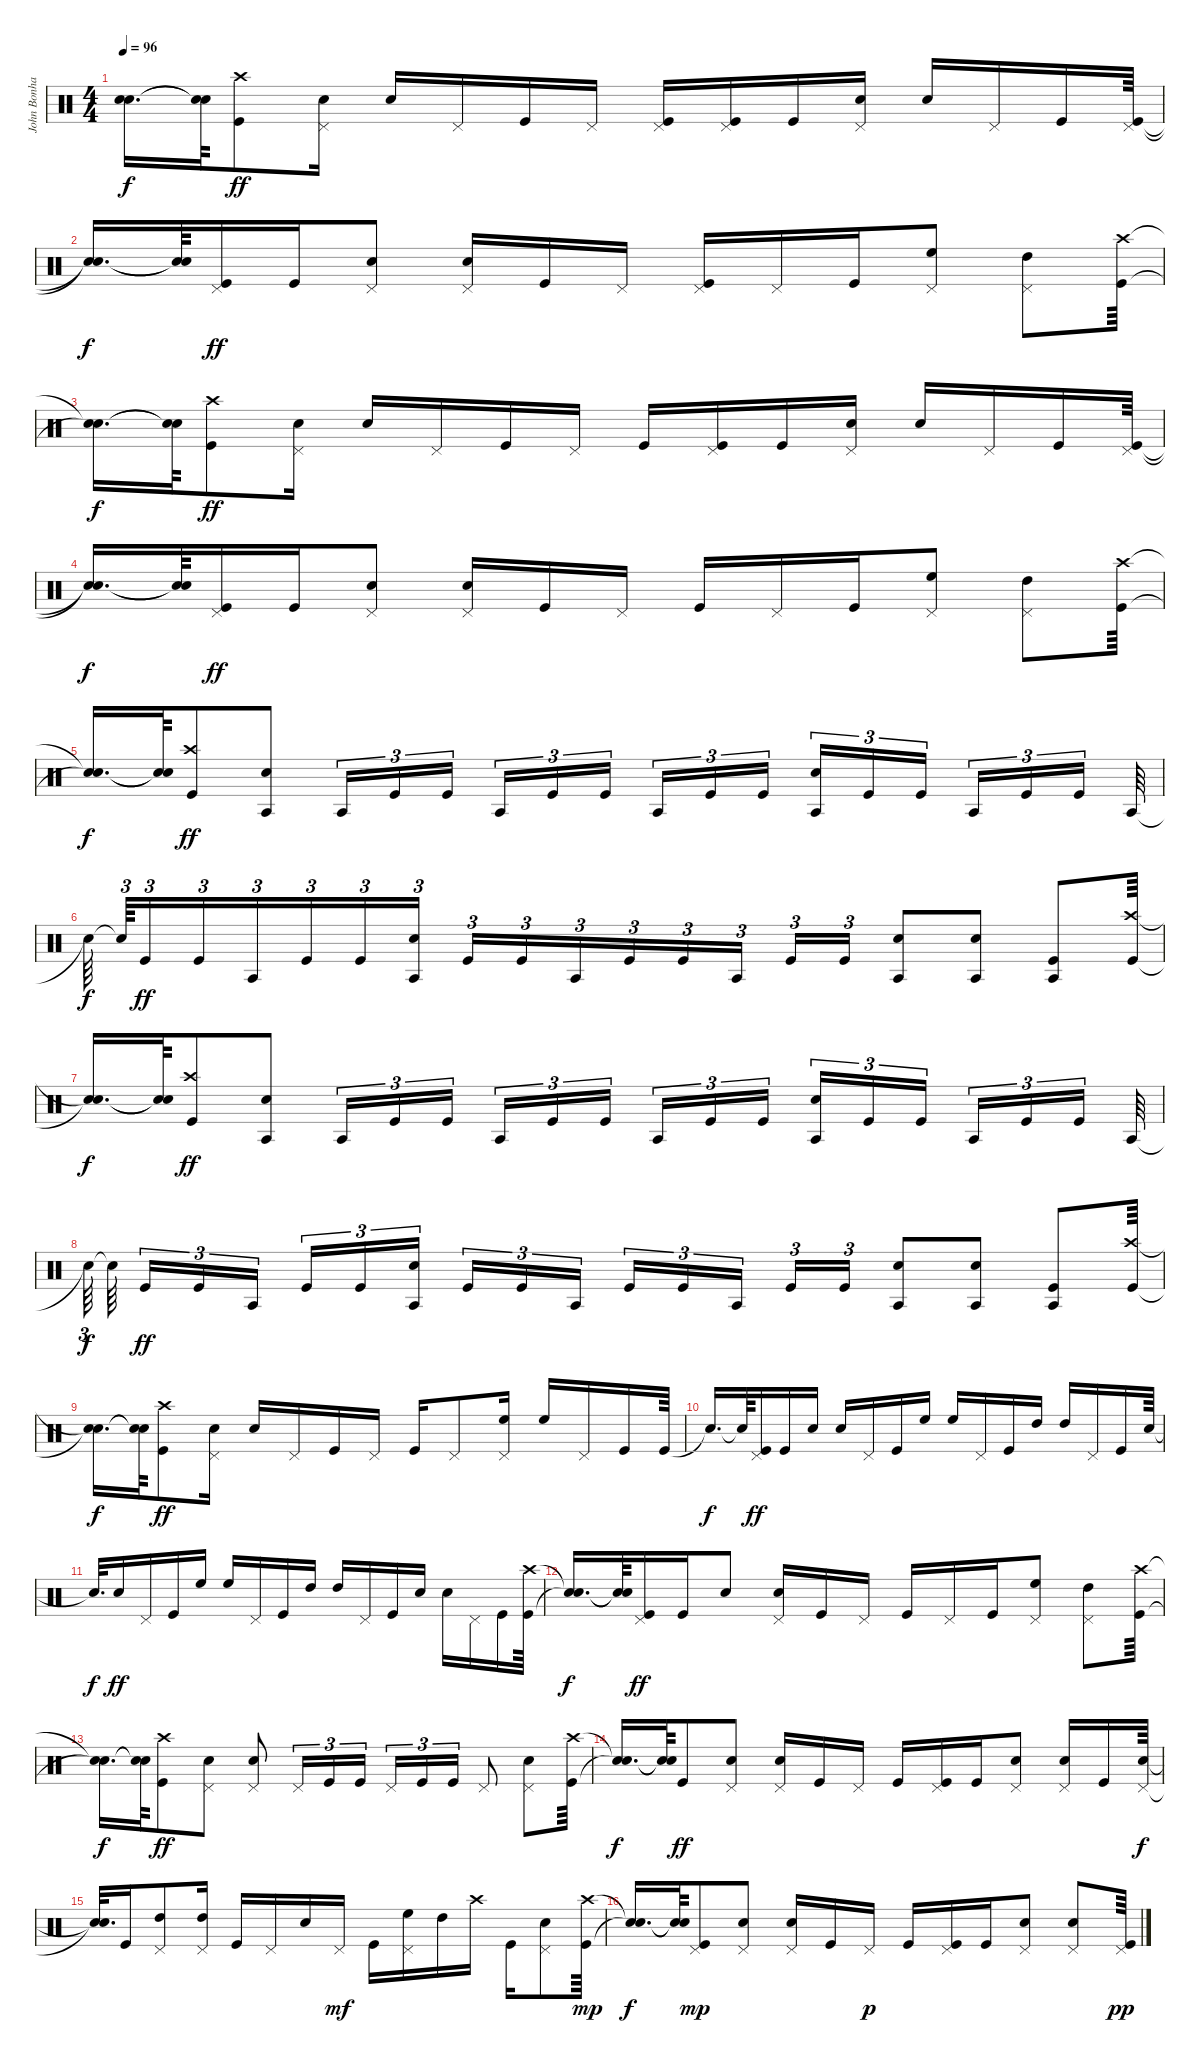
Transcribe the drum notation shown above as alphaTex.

\track ("John Bonham - Drums" "John Bonha") {instrument percussion}
\staff {score}
\articulation defaults
\ts (4 4)
\tempo 96
\clef neutral
\ks c
("Snare (hit)"{t} "Snare (hit)"{t}).16{d dy f} ("Snare (hit)"{t} "Snare (hit)"{t}).64 ("Crash high (hit)" "Kick (hit)").8{dy ff} ("Pedal Hi-Hat (hit)" "Snare (hit) 2").16 "Snare (hit) 2".16 "Pedal Hi-Hat (hit)".16 "Kick (hit)".16 "Pedal Hi-Hat (hit)".16 ("Pedal Hi-Hat (hit)" "Kick (hit)").16 ("Pedal Hi-Hat (hit)" "Kick (hit)").16 "Kick (hit)".16 ("Pedal Hi-Hat (hit)" "Snare (hit) 2").16 "Snare (hit) 2".16 "Pedal Hi-Hat (hit)".16 "Kick (hit)".16 ("Pedal Hi-Hat (hit)" "Kick (hit)").64 |
("Snare (hit)"{t} "Snare (hit)"{t}).16{d dy f} ("Snare (hit)"{t} "Snare (hit)"{t}).64 ("Pedal Hi-Hat (hit)" "Kick (hit)").16{dy ff} "Kick (hit)".16 ("Pedal Hi-Hat (hit)" "Snare (hit) 2").8 ("Pedal Hi-Hat (hit)" "Snare (hit) 2").16 "Kick (hit)".16 "Pedal Hi-Hat (hit)".16 ("Pedal Hi-Hat (hit)" "Kick (hit)").16 "Pedal Hi-Hat (hit)".16 "Kick (hit)".16 ("Pedal Hi-Hat (hit)" "High Floor Tom (hit)").8 ("Pedal Hi-Hat (hit)" "High Tom (hit)").8 ("Crash high (hit)" "Kick (hit)").64 |
("Snare (hit)"{t} "Snare (hit)"{t}).16{d dy f} ("Snare (hit)"{t} "Snare (hit)"{t}).64 ("Crash high (hit)" "Kick (hit)").8{dy ff} ("Pedal Hi-Hat (hit)" "Snare (hit) 2").16 "Snare (hit) 2".16 "Pedal Hi-Hat (hit)".16 "Kick (hit)".16 "Pedal Hi-Hat (hit)".16 "Kick (hit)".16 ("Pedal Hi-Hat (hit)" "Kick (hit)").16 "Kick (hit)".16 ("Pedal Hi-Hat (hit)" "Snare (hit) 2").16 "Snare (hit) 2".16 "Pedal Hi-Hat (hit)".16 "Kick (hit)".16 ("Pedal Hi-Hat (hit)" "Kick (hit)").64 |
("Snare (hit)"{t} "Snare (hit)"{t}).16{d dy f} ("Snare (hit)"{t} "Snare (hit)"{t}).64 ("Pedal Hi-Hat (hit)" "Kick (hit)").16{dy ff} "Kick (hit)".16 ("Pedal Hi-Hat (hit)" "Snare (hit) 2").8 ("Pedal Hi-Hat (hit)" "Snare (hit) 2").16 "Kick (hit)".16 "Pedal Hi-Hat (hit)".16 "Kick (hit)".16 "Pedal Hi-Hat (hit)".16 "Kick (hit)".16 ("Pedal Hi-Hat (hit)" "High Floor Tom (hit)").8 ("Pedal Hi-Hat (hit)" "High Tom (hit)").8 ("Crash high (hit)" "Kick (hit)").64 |
("Snare (hit)"{t} "Snare (hit)"{t}).16{d dy f} ("Snare (hit)"{t} "Snare (hit)"{t}).64 ("Crash high (hit)" "Kick (hit)").8{dy ff} ("Agogo tow (hit)" "Snare (hit) 2").8 "Agogo tow (hit)".16{tu (3 2)} "Kick (hit)".16{tu (3 2)} "Kick (hit)".16{tu (3 2) beam splitsecondary} "Agogo tow (hit)".16{tu (3 2)} "Kick (hit)".16{tu (3 2)} "Kick (hit)".16{tu (3 2) beam splitsecondary} "Agogo tow (hit)".16{tu (3 2)} "Kick (hit)".16{tu (3 2)} "Kick (hit)".16{tu (3 2) beam splitsecondary} ("Agogo tow (hit)" "Snare (hit) 2").16{tu (3 2)} "Kick (hit)".16{tu (3 2)} "Kick (hit)".16{tu (3 2) beam splitsecondary} "Agogo tow (hit)".16{tu (3 2)} "Kick (hit)".16{tu (3 2)} "Kick (hit)".16{tu (3 2) beam splitsecondary} "Agogo tow (hit)".64 |
"Snare (hit)"{t}.64{dy f beam splitsecondary} "Snare (hit)"{t}.64{tu (3 2)} "Kick (hit)".16{tu (3 2) dy ff} "Kick (hit)".16{tu (3 2)} "Agogo tow (hit)".16{tu (3 2)} "Kick (hit)".16{tu (3 2)} "Kick (hit)".16{tu (3 2)} ("Agogo tow (hit)" "Snare (hit) 2").16{tu (3 2)} "Kick (hit)".16{tu (3 2)} "Kick (hit)".16{tu (3 2)} "Agogo tow (hit)".16{tu (3 2)} "Kick (hit)".16{tu (3 2)} "Kick (hit)".16{tu (3 2)} "Agogo tow (hit)".16{tu (3 2)} "Kick (hit)".16{tu (3 2)} "Kick (hit)".16{tu (3 2)} ("Agogo tow (hit)" "Snare (hit) 2").8 ("Agogo tow (hit)" "Snare (hit) 2").8 ("Agogo tow (hit)" "Kick (hit)").8 ("Crash high (hit)" "Kick (hit)").64 |
("Snare (hit)"{t} "Snare (hit)"{t}).16{d dy f} ("Snare (hit)"{t} "Snare (hit)"{t}).64 ("Crash high (hit)" "Kick (hit)").8{dy ff} ("Agogo tow (hit)" "Snare (hit) 2").8 "Agogo tow (hit)".16{tu (3 2)} "Kick (hit)".16{tu (3 2)} "Kick (hit)".16{tu (3 2) beam splitsecondary} "Agogo tow (hit)".16{tu (3 2)} "Kick (hit)".16{tu (3 2)} "Kick (hit)".16{tu (3 2) beam splitsecondary} "Agogo tow (hit)".16{tu (3 2)} "Kick (hit)".16{tu (3 2)} "Kick (hit)".16{tu (3 2) beam splitsecondary} ("Agogo tow (hit)" "Snare (hit) 2").16{tu (3 2)} "Kick (hit)".16{tu (3 2)} "Kick (hit)".16{tu (3 2) beam splitsecondary} "Agogo tow (hit)".16{tu (3 2)} "Kick (hit)".16{tu (3 2)} "Kick (hit)".16{tu (3 2) beam splitsecondary} "Agogo tow (hit)".64 |
"Snare (hit)"{t}.64{tu (3 2) dy f beam splitsecondary} "Snare (hit)"{t}.64{beam splitsecondary} "Kick (hit)".16{tu (3 2) dy ff} "Kick (hit)".16{tu (3 2)} "Agogo tow (hit)".16{tu (3 2) beam splitsecondary} "Kick (hit)".16{tu (3 2)} "Kick (hit)".16{tu (3 2)} ("Agogo tow (hit)" "Snare (hit) 2").16{tu (3 2)} "Kick (hit)".16{tu (3 2)} "Kick (hit)".16{tu (3 2)} "Agogo tow (hit)".16{tu (3 2) beam splitsecondary} "Kick (hit)".16{tu (3 2)} "Kick (hit)".16{tu (3 2)} "Agogo tow (hit)".16{tu (3 2)} "Kick (hit)".16{tu (3 2)} "Kick (hit)".16{tu (3 2)} ("Agogo tow (hit)" "Snare (hit) 2").8 ("Agogo tow (hit)" "Snare (hit) 2").8 ("Agogo tow (hit)" "Kick (hit)").8 ("Crash high (hit)" "Kick (hit)").64 |
("Snare (hit)"{t} "Snare (hit)"{t}).16{d dy f} ("Snare (hit)"{t} "Snare (hit)"{t}).64 ("Crash high (hit)" "Kick (hit)").8{dy ff} ("Pedal Hi-Hat (hit)" "Snare (hit) 2").16 "Snare (hit) 2".16 "Pedal Hi-Hat (hit)".16 "Kick (hit)".16 "Pedal Hi-Hat (hit)".16 "Kick (hit)".16 "Pedal Hi-Hat (hit)".8 ("Pedal Hi-Hat (hit)" "High Floor Tom (hit)").16 "High Floor Tom (hit)".16 "Pedal Hi-Hat (hit)".16 "Kick (hit)".16 "Kick (hit)".64 |
"Snare (hit)"{t}.16{d dy f} "Snare (hit)"{t}.64 ("Pedal Hi-Hat (hit)" "Kick (hit)").16{dy ff} "Kick (hit)".16 "Snare (hit) 2".16 "Snare (hit) 2".16 "Pedal Hi-Hat (hit)".16 "Kick (hit)".16 "High Floor Tom (hit)".16 "High Floor Tom (hit)".16 "Pedal Hi-Hat (hit)".16 "Kick (hit)".16 "High Tom (hit)".16 "High Tom (hit)".16 "Pedal Hi-Hat (hit)".16 "Kick (hit)".16 "Snare (hit) 2".64 |
"Snare (hit)"{t}.32{d dy f} "Snare (hit) 2".16{dy ff} "Pedal Hi-Hat (hit)".16 "Kick (hit)".16 "High Floor Tom (hit)".16 "High Floor Tom (hit)".16 "Pedal Hi-Hat (hit)".16 "Kick (hit)".16 "High Tom (hit)".16 "High Tom (hit)".16 "Pedal Hi-Hat (hit)".16 "Kick (hit)".16 "Snare (hit) 2".16 "Snare (hit) 2".16 "Pedal Hi-Hat (hit)".16 "Kick (hit)".16 ("Crash high (hit)" "Kick (hit)").64 |
("Snare (hit)"{t} "Snare (hit)"{t}).16{d dy f} ("Snare (hit)"{t} "Snare (hit)"{t}).64 ("Pedal Hi-Hat (hit)" "Kick (hit)").16{dy ff} "Kick (hit)".16 "Snare (hit) 2".8 ("Pedal Hi-Hat (hit)" "Snare (hit) 2").16 "Kick (hit)".16 "Pedal Hi-Hat (hit)".16 "Kick (hit)".16 "Pedal Hi-Hat (hit)".16 "Kick (hit)".16 ("Pedal Hi-Hat (hit)" "High Floor Tom (hit)").8 ("Pedal Hi-Hat (hit)" "High Tom (hit)").8 ("Crash high (hit)" "Kick (hit)").64 |
("Snare (hit)"{t} "Snare (hit)"{t}).16{d dy f} ("Snare (hit)"{t} "Snare (hit)"{t}).64 ("Crash high (hit)" "Kick (hit)").8{dy ff} ("Pedal Hi-Hat (hit)" "Snare (hit) 2").8 ("Pedal Hi-Hat (hit)" "Snare (hit) 2").8 "Pedal Hi-Hat (hit)".16{tu (3 2)} "Kick (hit)".16{tu (3 2)} "Kick (hit)".16{tu (3 2) beam splitsecondary} "Pedal Hi-Hat (hit)".16{tu (3 2)} "Kick (hit)".16{tu (3 2)} "Kick (hit)".16{tu (3 2)} "Pedal Hi-Hat (hit)".8 ("Pedal Hi-Hat (hit)" "Snare (hit) 2").8 ("Crash high (hit)" "Kick (hit)").64 |
("Snare (hit)"{t} "Snare (hit)"{t}).16{d dy f} ("Snare (hit)"{t} "Snare (hit)"{t}).64 "Kick (hit)".8{dy ff} ("Pedal Hi-Hat (hit)" "Snare (hit) 2").8 ("Pedal Hi-Hat (hit)" "Snare (hit) 2").16 "Kick (hit)".16 "Pedal Hi-Hat (hit)".16 "Kick (hit)".16 ("Pedal Hi-Hat (hit)" "Kick (hit)").16 "Kick (hit)".16 ("Pedal Hi-Hat (hit)" "Snare (hit) 2").8 ("Pedal Hi-Hat (hit)" "Snare (hit) 2").16 "Kick (hit)".16 ("Pedal Hi-Hat (hit)" "Snare (hit) 2").64{dy f} |
("Snare (hit)"{t} "Snare (hit)"{t}).32{d} "Kick (hit)".16 ("Pedal Hi-Hat (hit)" "High Tom (hit)").8 ("Pedal Hi-Hat (hit)" "High Tom (hit)").16 "Kick (hit)".16 "Pedal Hi-Hat (hit)".16 "Snare (hit) 2".16 "Pedal Hi-Hat (hit)".16{dy mf} "Kick (hit)".16 ("Pedal Hi-Hat (hit)" "High Floor Tom (hit)").16 "High Tom (hit)".16 "Crash high (hit)".16 "Kick (hit)".16 ("Pedal Hi-Hat (hit)" "Snare (hit) 2").8 ("Crash high (hit)" "Kick (hit)").64{dy mp} |
("Snare (hit)"{t} "Snare (hit)"{t}).16{d dy f} ("Snare (hit)"{t} "Snare (hit)"{t}).64 ("Pedal Hi-Hat (hit)" "Kick (hit)").8{dy mp} ("Pedal Hi-Hat (hit)" "Snare (hit) 2").8 ("Pedal Hi-Hat (hit)" "Snare (hit) 2").16 "Kick (hit)".16 "Pedal Hi-Hat (hit)".16{dy p} "Kick (hit)".16 ("Pedal Hi-Hat (hit)" "Kick (hit)").16 "Kick (hit)".16 ("Pedal Hi-Hat (hit)" "Snare (hit) 2").8 ("Pedal Hi-Hat (hit)" "Snare (hit) 2").8 ("Pedal Hi-Hat (hit)" "Kick (hit)").64{dy pp}
